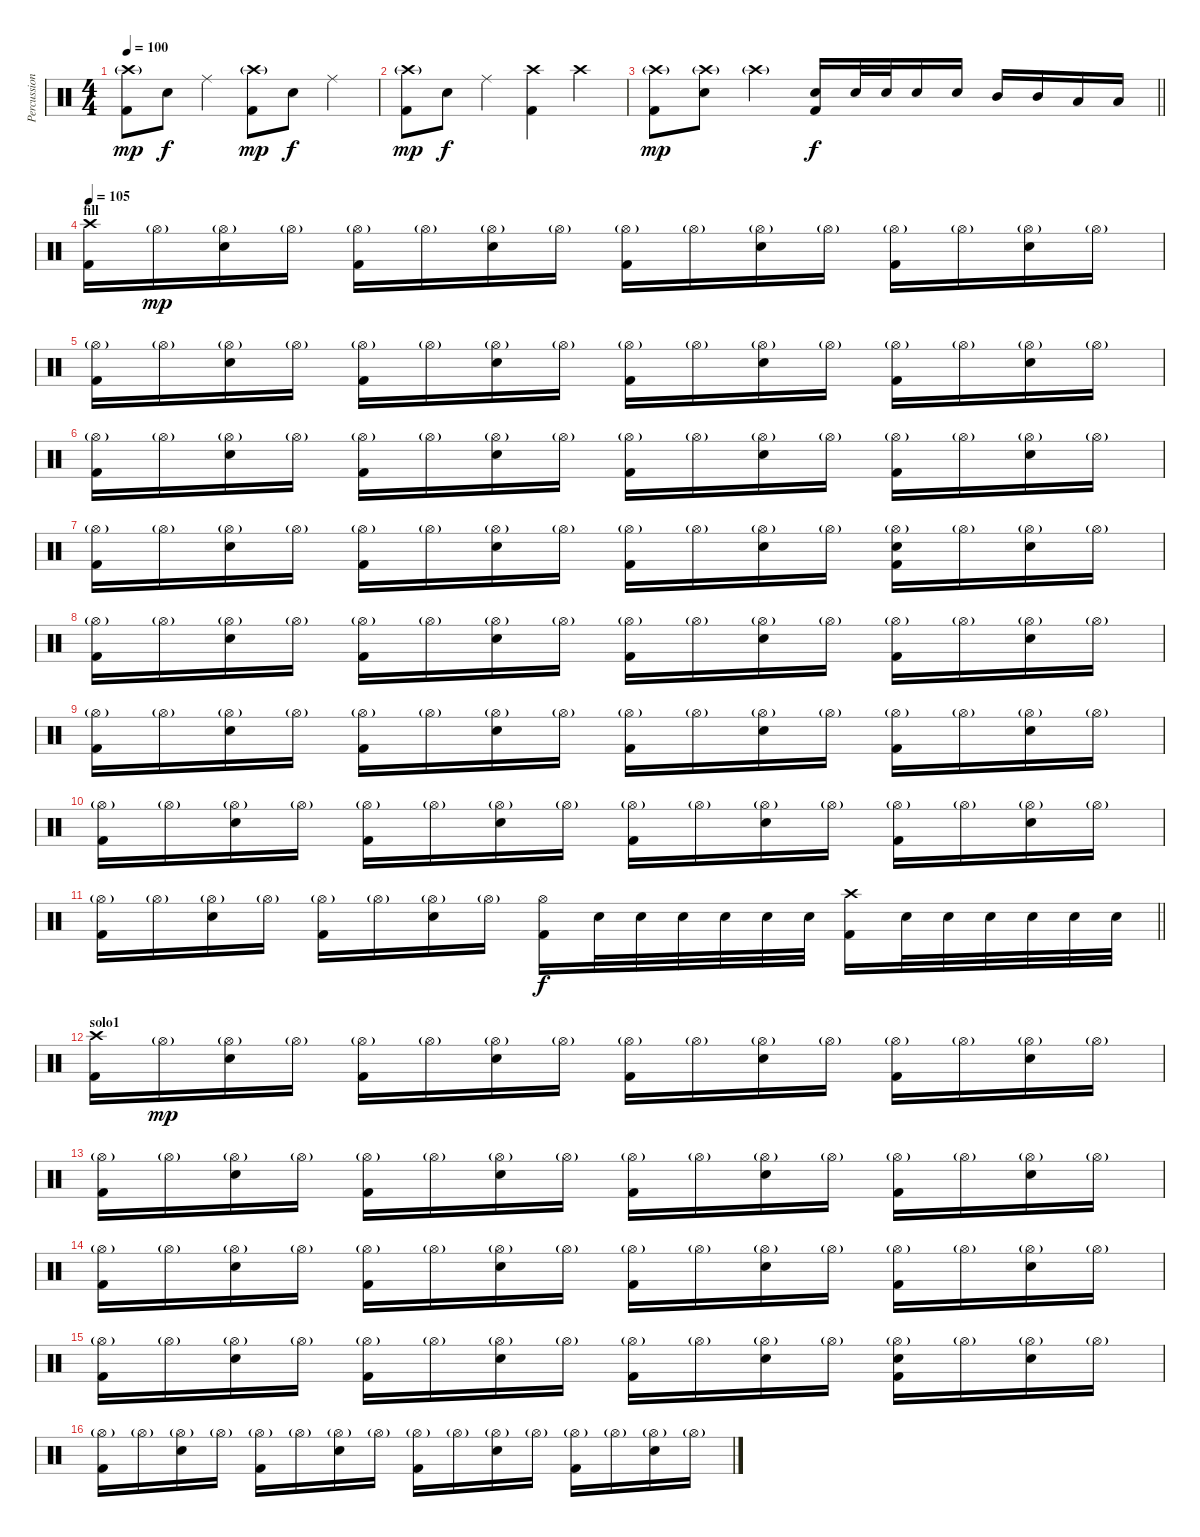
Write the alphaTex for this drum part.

\track ("Percussion" "Percussion") {instrument percussion}
\staff {score}
\articulation defaults
\ts (4 4)
\tempo 100
\clef neutral
\ks c
("Crash high (hit)"{g} "Kick (hit) 2").8{dy mp} "Electric Snare (hit)".8{dy f} "Ride (middle)".4 ("Crash high (hit)"{g} "Kick (hit) 2").8{dy mp} "Electric Snare (hit)".8{dy f} "Ride (middle)".4 |
("Crash high (hit)"{g} "Kick (hit) 2").8{dy mp} "Electric Snare (hit)".8{dy f} "Ride (middle)".4 ("Crash high (hit)" "Kick (hit) 2").4 "Crash high (hit)".4 |
\barLineRight lightlight
("Crash high (hit)"{g} "Kick (hit) 2").8{dy mp} ("Crash high (hit)"{g} "Electric Snare (hit)").8 "Crash high (hit)"{g}.4 ("Electric Snare (hit)" "Kick (hit) 2").16{dy f} "Electric Snare (hit)".32 "Electric Snare (hit)".32 "Electric Snare (hit)".16 "Electric Snare (hit)".16 "Mid Tom (hit)".16 "Mid Tom (hit)".16 "Low Tom (hit)".16 "Low Tom (hit)".16 |
\section ("" "fill")
\tempo 105
("Crash high (hit)" "Kick (hit) 2").16 "Hi-Hat (open)"{g}.16{dy mp} ("Hi-Hat (open)"{g} "Electric Snare (hit)").16 "Hi-Hat (open)"{g}.16 ("Hi-Hat (open)"{g} "Kick (hit) 2").16 "Hi-Hat (open)"{g}.16 ("Hi-Hat (open)"{g} "Electric Snare (hit)").16 "Hi-Hat (open)"{g}.16 ("Hi-Hat (open)"{g} "Kick (hit) 2").16 "Hi-Hat (open)"{g}.16 ("Hi-Hat (open)"{g} "Electric Snare (hit)").16 "Hi-Hat (open)"{g}.16 ("Hi-Hat (open)"{g} "Kick (hit) 2").16 "Hi-Hat (open)"{g}.16 ("Hi-Hat (open)"{g} "Electric Snare (hit)").16 "Hi-Hat (open)"{g}.16 |
("Hi-Hat (open)"{g} "Kick (hit) 2").16 "Hi-Hat (open)"{g}.16 ("Hi-Hat (open)"{g} "Electric Snare (hit)").16 "Hi-Hat (open)"{g}.16 ("Hi-Hat (open)"{g} "Kick (hit) 2").16 "Hi-Hat (open)"{g}.16 ("Hi-Hat (open)"{g} "Electric Snare (hit)").16 "Hi-Hat (open)"{g}.16 ("Hi-Hat (open)"{g} "Kick (hit) 2").16 "Hi-Hat (open)"{g}.16 ("Hi-Hat (open)"{g} "Electric Snare (hit)").16 "Hi-Hat (open)"{g}.16 ("Hi-Hat (open)"{g} "Kick (hit) 2").16 "Hi-Hat (open)"{g}.16 ("Hi-Hat (open)"{g} "Electric Snare (hit)").16 "Hi-Hat (open)"{g}.16 |
("Hi-Hat (open)"{g} "Kick (hit) 2").16 "Hi-Hat (open)"{g}.16 ("Hi-Hat (open)"{g} "Electric Snare (hit)").16 "Hi-Hat (open)"{g}.16 ("Hi-Hat (open)"{g} "Kick (hit) 2").16 "Hi-Hat (open)"{g}.16 ("Hi-Hat (open)"{g} "Electric Snare (hit)").16 "Hi-Hat (open)"{g}.16 ("Hi-Hat (open)"{g} "Kick (hit) 2").16 "Hi-Hat (open)"{g}.16 ("Hi-Hat (open)"{g} "Electric Snare (hit)").16 "Hi-Hat (open)"{g}.16 ("Hi-Hat (open)"{g} "Kick (hit) 2").16 "Hi-Hat (open)"{g}.16 ("Hi-Hat (open)"{g} "Electric Snare (hit)").16 "Hi-Hat (open)"{g}.16 |
("Hi-Hat (open)"{g} "Kick (hit) 2").16 "Hi-Hat (open)"{g}.16 ("Hi-Hat (open)"{g} "Electric Snare (hit)").16 "Hi-Hat (open)"{g}.16 ("Hi-Hat (open)"{g} "Kick (hit) 2").16 "Hi-Hat (open)"{g}.16 ("Hi-Hat (open)"{g} "Electric Snare (hit)").16 "Hi-Hat (open)"{g}.16 ("Hi-Hat (open)"{g} "Kick (hit) 2").16 "Hi-Hat (open)"{g}.16 ("Hi-Hat (open)"{g} "Electric Snare (hit)").16 "Hi-Hat (open)"{g}.16 ("Hi-Hat (open)"{g} "Electric Snare (hit)" "Kick (hit) 2").16 "Hi-Hat (open)"{g}.16 ("Hi-Hat (open)"{g} "Electric Snare (hit)").16 "Hi-Hat (open)"{g}.16 |
("Hi-Hat (open)"{g} "Kick (hit) 2").16 "Hi-Hat (open)"{g}.16 ("Hi-Hat (open)"{g} "Electric Snare (hit)").16 "Hi-Hat (open)"{g}.16 ("Hi-Hat (open)"{g} "Kick (hit) 2").16 "Hi-Hat (open)"{g}.16 ("Hi-Hat (open)"{g} "Electric Snare (hit)").16 "Hi-Hat (open)"{g}.16 ("Hi-Hat (open)"{g} "Kick (hit) 2").16 "Hi-Hat (open)"{g}.16 ("Hi-Hat (open)"{g} "Electric Snare (hit)").16 "Hi-Hat (open)"{g}.16 ("Hi-Hat (open)"{g} "Kick (hit) 2").16 "Hi-Hat (open)"{g}.16 ("Hi-Hat (open)"{g} "Electric Snare (hit)").16 "Hi-Hat (open)"{g}.16 |
("Hi-Hat (open)"{g} "Kick (hit) 2").16 "Hi-Hat (open)"{g}.16 ("Hi-Hat (open)"{g} "Electric Snare (hit)").16 "Hi-Hat (open)"{g}.16 ("Hi-Hat (open)"{g} "Kick (hit) 2").16 "Hi-Hat (open)"{g}.16 ("Hi-Hat (open)"{g} "Electric Snare (hit)").16 "Hi-Hat (open)"{g}.16 ("Hi-Hat (open)"{g} "Kick (hit) 2").16 "Hi-Hat (open)"{g}.16 ("Hi-Hat (open)"{g} "Electric Snare (hit)").16 "Hi-Hat (open)"{g}.16 ("Hi-Hat (open)"{g} "Kick (hit) 2").16 "Hi-Hat (open)"{g}.16 ("Hi-Hat (open)"{g} "Electric Snare (hit)").16 "Hi-Hat (open)"{g}.16 |
("Hi-Hat (open)"{g} "Kick (hit) 2").16 "Hi-Hat (open)"{g}.16 ("Hi-Hat (open)"{g} "Electric Snare (hit)").16 "Hi-Hat (open)"{g}.16 ("Hi-Hat (open)"{g} "Kick (hit) 2").16 "Hi-Hat (open)"{g}.16 ("Hi-Hat (open)"{g} "Electric Snare (hit)").16 "Hi-Hat (open)"{g}.16 ("Hi-Hat (open)"{g} "Kick (hit) 2").16 "Hi-Hat (open)"{g}.16 ("Hi-Hat (open)"{g} "Electric Snare (hit)").16 "Hi-Hat (open)"{g}.16 ("Hi-Hat (open)"{g} "Kick (hit) 2").16 "Hi-Hat (open)"{g}.16 ("Hi-Hat (open)"{g} "Electric Snare (hit)").16 "Hi-Hat (open)"{g}.16 |
\barLineRight lightlight
("Hi-Hat (open)"{g} "Kick (hit) 2").16 "Hi-Hat (open)"{g}.16 ("Hi-Hat (open)"{g} "Electric Snare (hit)").16 "Hi-Hat (open)"{g}.16 ("Hi-Hat (open)"{g} "Kick (hit) 2").16 "Hi-Hat (open)"{g}.16 ("Hi-Hat (open)"{g} "Electric Snare (hit)").16 "Hi-Hat (open)"{g}.16 ("Hi-Hat (open)" "Kick (hit) 2").16{dy f} "Electric Snare (hit)".32 "Electric Snare (hit)".32 "Electric Snare (hit)".32 "Electric Snare (hit)".32 "Electric Snare (hit)".32 "Electric Snare (hit)".32 ("Crash high (hit)" "Kick (hit) 2").16 "Electric Snare (hit)".32 "Electric Snare (hit)".32 "Electric Snare (hit)".32 "Electric Snare (hit)".32 "Electric Snare (hit)".32 "Electric Snare (hit)".32 |
\section ("" "solo1")
("Crash high (hit)" "Kick (hit) 2").16 "Hi-Hat (open)"{g}.16{dy mp} ("Hi-Hat (open)"{g} "Electric Snare (hit)").16 "Hi-Hat (open)"{g}.16 ("Hi-Hat (open)"{g} "Kick (hit) 2").16 "Hi-Hat (open)"{g}.16 ("Hi-Hat (open)"{g} "Electric Snare (hit)").16 "Hi-Hat (open)"{g}.16 ("Hi-Hat (open)"{g} "Kick (hit) 2").16 "Hi-Hat (open)"{g}.16 ("Hi-Hat (open)"{g} "Electric Snare (hit)").16 "Hi-Hat (open)"{g}.16 ("Hi-Hat (open)"{g} "Kick (hit) 2").16 "Hi-Hat (open)"{g}.16 ("Hi-Hat (open)"{g} "Electric Snare (hit)").16 "Hi-Hat (open)"{g}.16 |
("Hi-Hat (open)"{g} "Kick (hit) 2").16 "Hi-Hat (open)"{g}.16 ("Hi-Hat (open)"{g} "Electric Snare (hit)").16 "Hi-Hat (open)"{g}.16 ("Hi-Hat (open)"{g} "Kick (hit) 2").16 "Hi-Hat (open)"{g}.16 ("Hi-Hat (open)"{g} "Electric Snare (hit)").16 "Hi-Hat (open)"{g}.16 ("Hi-Hat (open)"{g} "Kick (hit) 2").16 "Hi-Hat (open)"{g}.16 ("Hi-Hat (open)"{g} "Electric Snare (hit)").16 "Hi-Hat (open)"{g}.16 ("Hi-Hat (open)"{g} "Kick (hit) 2").16 "Hi-Hat (open)"{g}.16 ("Hi-Hat (open)"{g} "Electric Snare (hit)").16 "Hi-Hat (open)"{g}.16 |
("Hi-Hat (open)"{g} "Kick (hit) 2").16 "Hi-Hat (open)"{g}.16 ("Hi-Hat (open)"{g} "Electric Snare (hit)").16 "Hi-Hat (open)"{g}.16 ("Hi-Hat (open)"{g} "Kick (hit) 2").16 "Hi-Hat (open)"{g}.16 ("Hi-Hat (open)"{g} "Electric Snare (hit)").16 "Hi-Hat (open)"{g}.16 ("Hi-Hat (open)"{g} "Kick (hit) 2").16 "Hi-Hat (open)"{g}.16 ("Hi-Hat (open)"{g} "Electric Snare (hit)").16 "Hi-Hat (open)"{g}.16 ("Hi-Hat (open)"{g} "Kick (hit) 2").16 "Hi-Hat (open)"{g}.16 ("Hi-Hat (open)"{g} "Electric Snare (hit)").16 "Hi-Hat (open)"{g}.16 |
("Hi-Hat (open)"{g} "Kick (hit) 2").16 "Hi-Hat (open)"{g}.16 ("Hi-Hat (open)"{g} "Electric Snare (hit)").16 "Hi-Hat (open)"{g}.16 ("Hi-Hat (open)"{g} "Kick (hit) 2").16 "Hi-Hat (open)"{g}.16 ("Hi-Hat (open)"{g} "Electric Snare (hit)").16 "Hi-Hat (open)"{g}.16 ("Hi-Hat (open)"{g} "Kick (hit) 2").16 "Hi-Hat (open)"{g}.16 ("Hi-Hat (open)"{g} "Electric Snare (hit)").16 "Hi-Hat (open)"{g}.16 ("Hi-Hat (open)"{g} "Electric Snare (hit)" "Kick (hit) 2").16 "Hi-Hat (open)"{g}.16 ("Hi-Hat (open)"{g} "Electric Snare (hit)").16 "Hi-Hat (open)"{g}.16 |
("Hi-Hat (open)"{g} "Kick (hit) 2").16 "Hi-Hat (open)"{g}.16 ("Hi-Hat (open)"{g} "Electric Snare (hit)").16 "Hi-Hat (open)"{g}.16 ("Hi-Hat (open)"{g} "Kick (hit) 2").16 "Hi-Hat (open)"{g}.16 ("Hi-Hat (open)"{g} "Electric Snare (hit)").16 "Hi-Hat (open)"{g}.16 ("Hi-Hat (open)"{g} "Kick (hit) 2").16 "Hi-Hat (open)"{g}.16 ("Hi-Hat (open)"{g} "Electric Snare (hit)").16 "Hi-Hat (open)"{g}.16 ("Hi-Hat (open)"{g} "Kick (hit) 2").16 "Hi-Hat (open)"{g}.16 ("Hi-Hat (open)"{g} "Electric Snare (hit)").16 "Hi-Hat (open)"{g}.16
